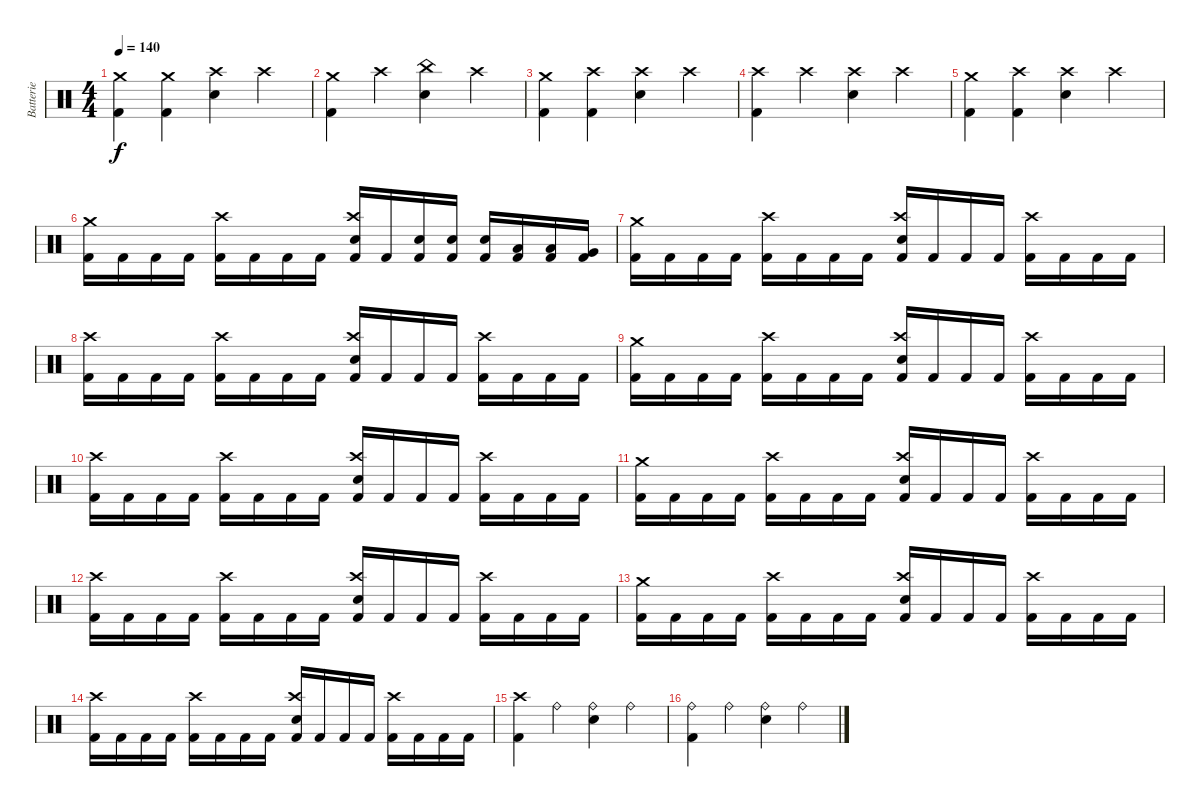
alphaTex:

\track ("Batterie" "Batterie") {instrument percussion}
\staff {score}
\articulation defaults
\ts (4 4)
\tempo 140
\clef neutral
\ks c
("Crash medium (hit)" "Kick (hit) 2").4{dy f} ("Crash medium (hit)" "Kick (hit) 2").4 ("Crash high (hit)" "Electric Snare (hit)").4 "Crash high (hit)".4 |
("Crash medium (hit)" "Kick (hit) 2").4 "Crash high (hit)".4 ("China (hit)" "Electric Snare (hit)").4 "Crash high (hit)".4 |
("Crash medium (hit)" "Kick (hit) 2").4 ("Crash high (hit)" "Kick (hit) 2").4 ("Crash high (hit)" "Electric Snare (hit)").4 "Crash high (hit)".4 |
("Crash high (hit)" "Kick (hit) 2").4 "Crash high (hit)".4 ("Crash high (hit)" "Electric Snare (hit)").4 "Crash high (hit)".4 |
("Crash medium (hit)" "Kick (hit) 2").4 ("Crash high (hit)" "Kick (hit) 2").4 ("Crash high (hit)" "Electric Snare (hit)").4 "Crash high (hit)".4 |
("Crash medium (hit)" "Kick (hit) 2").16 "Kick (hit) 2".16 "Kick (hit) 2".16 "Kick (hit) 2".16 ("Crash high (hit)" "Kick (hit) 2").16 "Kick (hit) 2".16 "Kick (hit) 2".16 "Kick (hit) 2".16 ("Crash high (hit)" "Electric Snare (hit)" "Kick (hit) 2").16 "Kick (hit) 2".16 ("Electric Snare (hit)" "Kick (hit) 2").16 ("Electric Snare (hit)" "Kick (hit) 2").16 ("Electric Snare (hit)" "Kick (hit) 2").16 ("Low Tom (hit)" "Kick (hit) 2").16 ("Low Tom (hit)" "Kick (hit) 2").16 ("Very Low Tom (hit)" "Kick (hit) 2").16 |
("Crash medium (hit)" "Kick (hit) 2").16 "Kick (hit) 2".16 "Kick (hit) 2".16 "Kick (hit) 2".16 ("Crash high (hit)" "Kick (hit) 2").16 "Kick (hit) 2".16 "Kick (hit) 2".16 "Kick (hit) 2".16 ("Crash high (hit)" "Electric Snare (hit)" "Kick (hit) 2").16 "Kick (hit) 2".16 "Kick (hit) 2".16 "Kick (hit) 2".16 ("Crash high (hit)" "Kick (hit) 2").16 "Kick (hit) 2".16 "Kick (hit) 2".16 "Kick (hit) 2".16 |
("Crash high (hit)" "Kick (hit) 2").16 "Kick (hit) 2".16 "Kick (hit) 2".16 "Kick (hit) 2".16 ("Crash high (hit)" "Kick (hit) 2").16 "Kick (hit) 2".16 "Kick (hit) 2".16 "Kick (hit) 2".16 ("Crash high (hit)" "Electric Snare (hit)" "Kick (hit) 2").16 "Kick (hit) 2".16 "Kick (hit) 2".16 "Kick (hit) 2".16 ("Crash high (hit)" "Kick (hit) 2").16 "Kick (hit) 2".16 "Kick (hit) 2".16 "Kick (hit) 2".16 |
("Crash medium (hit)" "Kick (hit) 2").16 "Kick (hit) 2".16 "Kick (hit) 2".16 "Kick (hit) 2".16 ("Crash high (hit)" "Kick (hit) 2").16 "Kick (hit) 2".16 "Kick (hit) 2".16 "Kick (hit) 2".16 ("Crash high (hit)" "Electric Snare (hit)" "Kick (hit) 2").16 "Kick (hit) 2".16 "Kick (hit) 2".16 "Kick (hit) 2".16 ("Crash high (hit)" "Kick (hit) 2").16 "Kick (hit) 2".16 "Kick (hit) 2".16 "Kick (hit) 2".16 |
("Crash high (hit)" "Kick (hit) 2").16 "Kick (hit) 2".16 "Kick (hit) 2".16 "Kick (hit) 2".16 ("Crash high (hit)" "Kick (hit) 2").16 "Kick (hit) 2".16 "Kick (hit) 2".16 "Kick (hit) 2".16 ("Crash high (hit)" "Electric Snare (hit)" "Kick (hit) 2").16 "Kick (hit) 2".16 "Kick (hit) 2".16 "Kick (hit) 2".16 ("Crash high (hit)" "Kick (hit) 2").16 "Kick (hit) 2".16 "Kick (hit) 2".16 "Kick (hit) 2".16 |
("Crash medium (hit)" "Kick (hit) 2").16 "Kick (hit) 2".16 "Kick (hit) 2".16 "Kick (hit) 2".16 ("Crash high (hit)" "Kick (hit) 2").16 "Kick (hit) 2".16 "Kick (hit) 2".16 "Kick (hit) 2".16 ("Crash high (hit)" "Electric Snare (hit)" "Kick (hit) 2").16 "Kick (hit) 2".16 "Kick (hit) 2".16 "Kick (hit) 2".16 ("Crash high (hit)" "Kick (hit) 2").16 "Kick (hit) 2".16 "Kick (hit) 2".16 "Kick (hit) 2".16 |
("Crash high (hit)" "Kick (hit) 2").16 "Kick (hit) 2".16 "Kick (hit) 2".16 "Kick (hit) 2".16 ("Crash high (hit)" "Kick (hit) 2").16 "Kick (hit) 2".16 "Kick (hit) 2".16 "Kick (hit) 2".16 ("Crash high (hit)" "Electric Snare (hit)" "Kick (hit) 2").16 "Kick (hit) 2".16 "Kick (hit) 2".16 "Kick (hit) 2".16 ("Crash high (hit)" "Kick (hit) 2").16 "Kick (hit) 2".16 "Kick (hit) 2".16 "Kick (hit) 2".16 |
("Crash medium (hit)" "Kick (hit) 2").16 "Kick (hit) 2".16 "Kick (hit) 2".16 "Kick (hit) 2".16 ("Crash high (hit)" "Kick (hit) 2").16 "Kick (hit) 2".16 "Kick (hit) 2".16 "Kick (hit) 2".16 ("Crash high (hit)" "Electric Snare (hit)" "Kick (hit) 2").16 "Kick (hit) 2".16 "Kick (hit) 2".16 "Kick (hit) 2".16 ("Crash high (hit)" "Kick (hit) 2").16 "Kick (hit) 2".16 "Kick (hit) 2".16 "Kick (hit) 2".16 |
("Crash high (hit)" "Kick (hit) 2").16 "Kick (hit) 2".16 "Kick (hit) 2".16 "Kick (hit) 2".16 ("Crash high (hit)" "Kick (hit) 2").16 "Kick (hit) 2".16 "Kick (hit) 2".16 "Kick (hit) 2".16 ("Crash high (hit)" "Electric Snare (hit)" "Kick (hit) 2").16 "Kick (hit) 2".16 "Kick (hit) 2".16 "Kick (hit) 2".16 ("Crash high (hit)" "Kick (hit) 2").16 "Kick (hit) 2".16 "Kick (hit) 2".16 "Kick (hit) 2".16 |
("Crash high (hit)" "Kick (hit) 2").4 "Ride (bell)".4 ("Ride (bell)" "Electric Snare (hit)").4 "Ride (bell)".4 |
("Ride (bell)" "Kick (hit) 2").4 "Ride (bell)".4 ("Ride (bell)" "Electric Snare (hit)").4 "Ride (bell)".4
